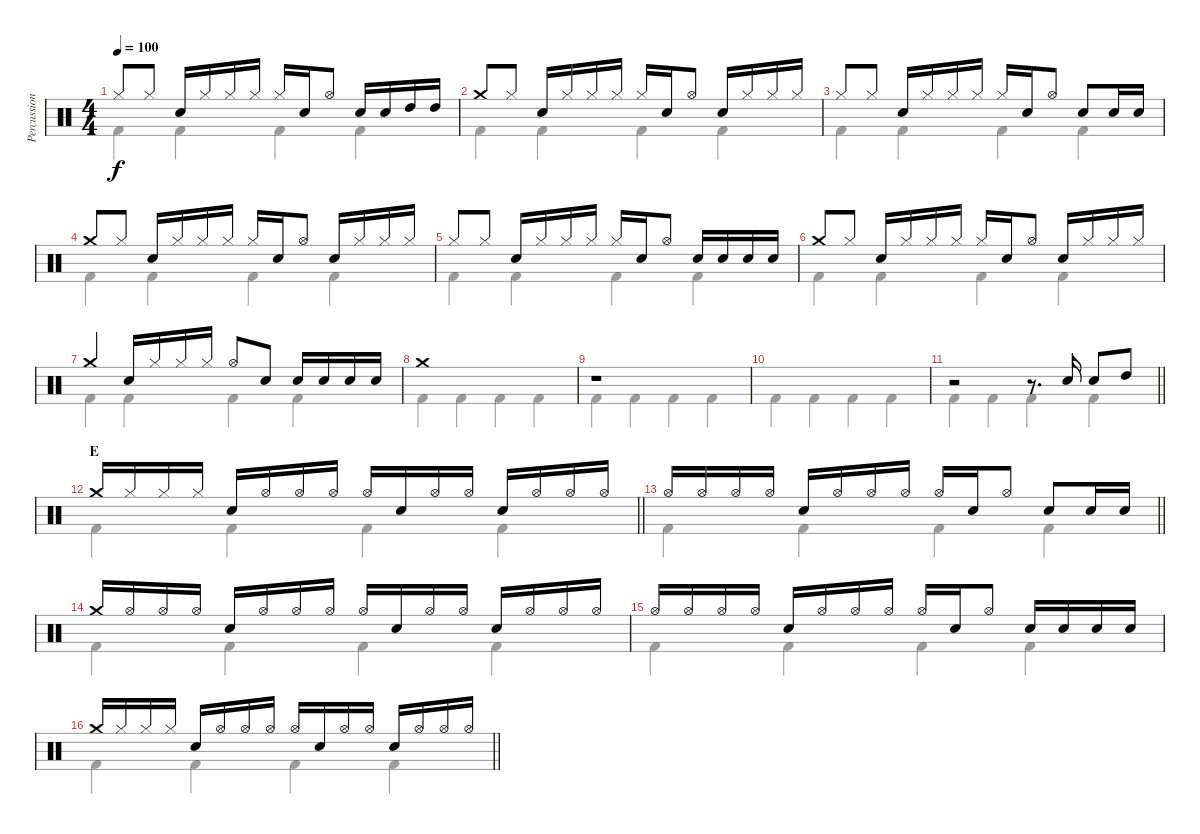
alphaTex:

\track ("Percussion" "Percussion") {instrument percussion}
\staff {score}
\articulation defaults
\voice
\ts (4 4)
\tempo 100
\clef neutral
\ks c "Hi-Hat (closed)".8{dy f} "Hi-Hat (closed)".8 "Snare (hit) 2".16 "Hi-Hat (closed)".16 "Hi-Hat (closed)".16 "Hi-Hat (closed)".16 "Hi-Hat (closed)".16 "Snare (hit) 2".16 "Hi-Hat (open)".8 "Snare (hit) 2".16 "Snare (hit) 2".16 "High Tom (hit)".16 "High Tom (hit)".16
|
"Crash medium (hit)".8 "Hi-Hat (closed)".8 "Snare (hit) 2".16 "Hi-Hat (closed)".16 "Hi-Hat (closed)".16 "Hi-Hat (closed)".16 "Hi-Hat (closed)".16 "Snare (hit) 2".16 "Hi-Hat (open)".8 "Snare (hit) 2".16 "Hi-Hat (closed)".16 "Hi-Hat (closed)".16 "Hi-Hat (closed)".16 |
"Hi-Hat (closed)".8 "Hi-Hat (closed)".8 "Snare (hit) 2".16 "Hi-Hat (closed)".16 "Hi-Hat (closed)".16 "Hi-Hat (closed)".16 "Hi-Hat (closed)".16 "Snare (hit) 2".16 "Hi-Hat (open)".8 "Snare (hit) 2".8 "Snare (hit) 2".16 "Snare (hit) 2".16 |
"Crash medium (hit)".8 "Hi-Hat (closed)".8 "Snare (hit) 2".16 "Hi-Hat (closed)".16 "Hi-Hat (closed)".16 "Hi-Hat (closed)".16 "Hi-Hat (closed)".16 "Snare (hit) 2".16 "Hi-Hat (open)".8 "Snare (hit) 2".16 "Hi-Hat (closed)".16 "Hi-Hat (closed)".16 "Hi-Hat (closed)".16 |
"Hi-Hat (closed)".8 "Hi-Hat (closed)".8 "Snare (hit) 2".16 "Hi-Hat (closed)".16 "Hi-Hat (closed)".16 "Hi-Hat (closed)".16 "Hi-Hat (closed)".16 "Snare (hit) 2".16 "Hi-Hat (open)".8 "Snare (hit) 2".16 "Snare (hit) 2".16 "Snare (hit) 2".16 "Snare (hit) 2".16 |
"Crash medium (hit)".8 "Hi-Hat (closed)".8 "Snare (hit) 2".16 "Hi-Hat (closed)".16 "Hi-Hat (closed)".16 "Hi-Hat (closed)".16 "Hi-Hat (closed)".16 "Snare (hit) 2".16 "Hi-Hat (open)".8 "Snare (hit) 2".16 "Hi-Hat (closed)".16 "Hi-Hat (closed)".16 "Hi-Hat (closed)".16 |
"Crash medium (hit)".4 "Snare (hit) 2".16 "Hi-Hat (closed)".16 "Hi-Hat (closed)".16 "Hi-Hat (closed)".16 "Hi-Hat (open)".8 "Snare (hit) 2".8 "Snare (hit) 2".16 "Snare (hit) 2".16 "Snare (hit) 2".16 "Snare (hit) 2".16 |
"Crash medium (hit)".1 |
r.1 |
|
\barLineRight lightlight
r.2 r.8{d} "Snare (hit) 2".16 "Snare (hit) 2".8 "High Tom (hit)".8 |
\section ("" "E")
\barLineRight lightlight "Crash medium (hit)".16 "Hi-Hat (closed)".16 "Hi-Hat (closed)".16 "Hi-Hat (closed)".16 "Snare (hit) 2".16 "Hi-Hat (open)".16 "Hi-Hat (open)".16 "Hi-Hat (open)".16 "Hi-Hat (open)".16 "Snare (hit) 2".16 "Hi-Hat (open)".16 "Hi-Hat (open)".16 "Snare (hit) 2".16 "Hi-Hat (open)".16 "Hi-Hat (open)".16 "Hi-Hat (open)".16
|
\barLineRight lightlight "Hi-Hat (open)".16 "Hi-Hat (open)".16 "Hi-Hat (open)".16 "Hi-Hat (open)".16 "Snare (hit) 2".16 "Hi-Hat (open)".16 "Hi-Hat (open)".16 "Hi-Hat (open)".16 "Hi-Hat (open)".16 "Snare (hit) 2".16 "Hi-Hat (open)".8 "Snare (hit) 2".8 "Snare (hit) 2".16 "Snare (hit) 2".16
|
"Crash medium (hit)".16 "Hi-Hat (open)".16 "Hi-Hat (open)".16 "Hi-Hat (open)".16 "Snare (hit) 2".16 "Hi-Hat (open)".16 "Hi-Hat (open)".16 "Hi-Hat (open)".16 "Hi-Hat (open)".16 "Snare (hit) 2".16 "Hi-Hat (open)".16 "Hi-Hat (open)".16 "Snare (hit) 2".16 "Hi-Hat (open)".16 "Hi-Hat (open)".16 "Hi-Hat (open)".16 |
"Hi-Hat (open)".16 "Hi-Hat (open)".16 "Hi-Hat (open)".16 "Hi-Hat (open)".16 "Snare (hit) 2".16 "Hi-Hat (open)".16 "Hi-Hat (open)".16 "Hi-Hat (open)".16 "Hi-Hat (open)".16 "Snare (hit) 2".16 "Hi-Hat (open)".8 "Snare (hit) 2".16 "Snare (hit) 2".16 "Snare (hit) 2".16 "Snare (hit) 2".16 |
\barLineRight lightlight "Crash medium (hit)".16 "Hi-Hat (closed)".16 "Hi-Hat (closed)".16 "Hi-Hat (closed)".16 "Snare (hit) 2".16 "Hi-Hat (open)".16 "Hi-Hat (open)".16 "Hi-Hat (open)".16 "Hi-Hat (open)".16 "Snare (hit) 2".16 "Hi-Hat (open)".16 "Hi-Hat (open)".16 "Snare (hit) 2".16 "Hi-Hat (open)".16 "Hi-Hat (open)".16 "Hi-Hat (open)".16
\voice
\clef neutral
\ottava regular
\simile none
\ks c "Kick (hit) 2".4{dy f} "Kick (hit) 2".4 "Kick (hit) 2".4 "Kick (hit) 2".4
|
"Kick (hit) 2".4 "Kick (hit) 2".4 "Kick (hit) 2".4 "Kick (hit) 2".4 |
"Kick (hit) 2".4 "Kick (hit) 2".4 "Kick (hit) 2".4 "Kick (hit) 2".4 |
"Kick (hit) 2".4 "Kick (hit) 2".4 "Kick (hit) 2".4 "Kick (hit) 2".4 |
"Kick (hit) 2".4 "Kick (hit) 2".4 "Kick (hit) 2".4 "Kick (hit) 2".4 |
"Kick (hit) 2".4 "Kick (hit) 2".4 "Kick (hit) 2".4 "Kick (hit) 2".4 |
"Kick (hit) 2".4 "Kick (hit) 2".4 "Kick (hit) 2".4 "Kick (hit) 2".4 |
"Kick (hit) 2".4 "Kick (hit) 2".4 "Kick (hit) 2".4 "Kick (hit) 2".4 |
"Kick (hit) 2".4 "Kick (hit) 2".4 "Kick (hit) 2".4 "Kick (hit) 2".4 |
"Kick (hit) 2".4 "Kick (hit) 2".4 "Kick (hit) 2".4 "Kick (hit) 2".4 |
\barLineRight lightlight "Kick (hit) 2".4 "Kick (hit) 2".4 "Kick (hit) 2".4 "Kick (hit) 2".4
|
\barLineRight lightlight "Kick (hit) 2".4 "Kick (hit) 2".4 "Kick (hit) 2".4 "Kick (hit) 2".4
|
\barLineRight lightlight "Kick (hit) 2".4 "Kick (hit) 2".4 "Kick (hit) 2".4 "Kick (hit) 2".4
|
"Kick (hit) 2".4 "Kick (hit) 2".4 "Kick (hit) 2".4 "Kick (hit) 2".4 |
"Kick (hit) 2".4 "Kick (hit) 2".4 "Kick (hit) 2".4 "Kick (hit) 2".4 |
\barLineRight lightlight "Kick (hit) 2".4 "Kick (hit) 2".4 "Kick (hit) 2".4 "Kick (hit) 2".4
